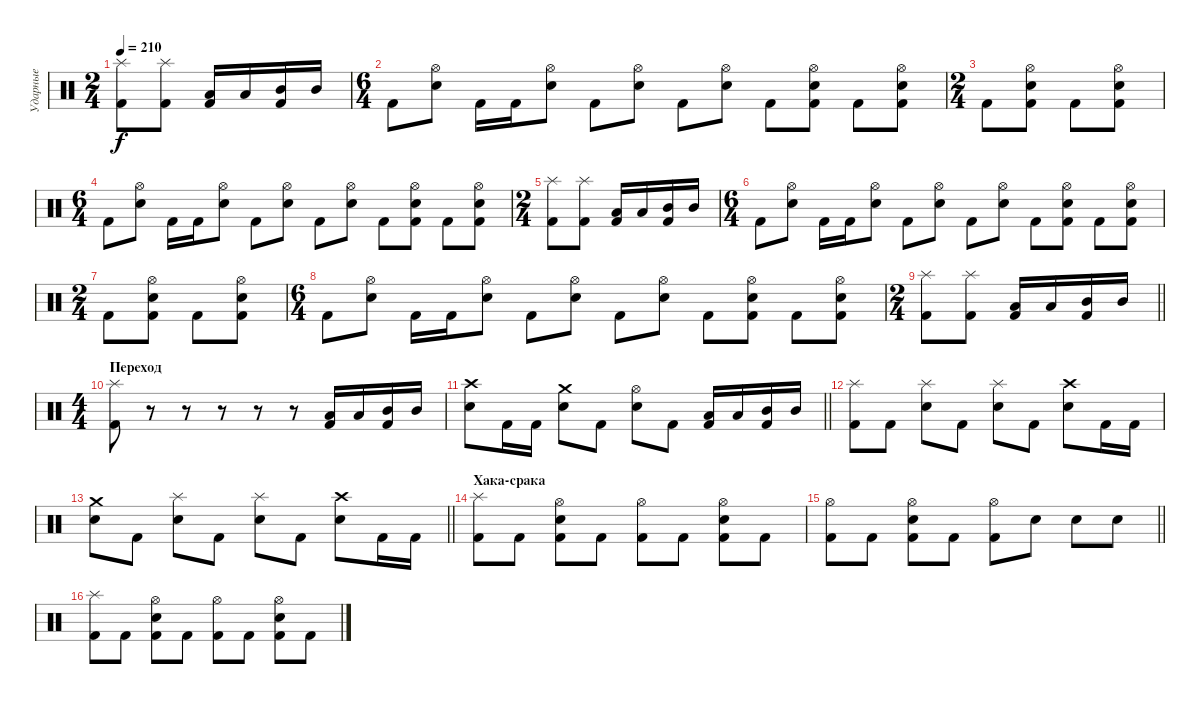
\track ("Ударные" "Ударные") {mute instrument percussion}
\staff {score}
\articulation defaults
\ts (2 4)
\tempo 210
\clef neutral
\ks c
("Kick (hit) 2" "Splash (hit)").8{dy f} ("Kick (hit) 2" "Splash (hit)").8 ("Kick (hit) 2" "Low Tom (hit)").16 "Low Tom (hit)".16 ("Kick (hit) 2" "Mid Tom (hit)").16 "Mid Tom (hit)".16 |
\ts (6 4)
"Kick (hit) 2".8 ("Electric Snare (hit)" "Hi-Hat (open)").8 "Kick (hit) 2".16 "Kick (hit) 2".16 ("Electric Snare (hit)" "Hi-Hat (open)").8 "Kick (hit) 2".8 ("Electric Snare (hit)" "Hi-Hat (open)").8 "Kick (hit) 2".8 ("Electric Snare (hit)" "Hi-Hat (open)").8 "Kick (hit) 2".8 ("Kick (hit) 2" "Electric Snare (hit)" "Hi-Hat (open)").8 "Kick (hit) 2".8 ("Kick (hit) 2" "Electric Snare (hit)" "Hi-Hat (open)").8 |
\ts (2 4)
"Kick (hit) 2".8 ("Kick (hit) 2" "Electric Snare (hit)" "Hi-Hat (open)").8 "Kick (hit) 2".8 ("Electric Snare (hit)" "Hi-Hat (open)" "Kick (hit) 2").8 |
\ts (6 4)
"Kick (hit) 2".8 ("Electric Snare (hit)" "Hi-Hat (open)").8 "Kick (hit) 2".16 "Kick (hit) 2".16 ("Electric Snare (hit)" "Hi-Hat (open)").8 "Kick (hit) 2".8 ("Electric Snare (hit)" "Hi-Hat (open)").8 "Kick (hit) 2".8 ("Electric Snare (hit)" "Hi-Hat (open)").8 "Kick (hit) 2".8 ("Kick (hit) 2" "Electric Snare (hit)" "Hi-Hat (open)").8 "Kick (hit) 2".8 ("Kick (hit) 2" "Electric Snare (hit)" "Hi-Hat (open)").8 |
\ts (2 4)
("Kick (hit) 2" "Splash (hit)").8 ("Kick (hit) 2" "Splash (hit)").8 ("Kick (hit) 2" "Low Tom (hit)").16 "Low Tom (hit)".16 ("Kick (hit) 2" "Mid Tom (hit)").16 "Mid Tom (hit)".16 |
\ts (6 4)
"Kick (hit) 2".8 ("Electric Snare (hit)" "Hi-Hat (open)").8 "Kick (hit) 2".16 "Kick (hit) 2".16 ("Electric Snare (hit)" "Hi-Hat (open)").8 "Kick (hit) 2".8 ("Electric Snare (hit)" "Hi-Hat (open)").8 "Kick (hit) 2".8 ("Electric Snare (hit)" "Hi-Hat (open)").8 "Kick (hit) 2".8 ("Kick (hit) 2" "Electric Snare (hit)" "Hi-Hat (open)").8 "Kick (hit) 2".8 ("Kick (hit) 2" "Electric Snare (hit)" "Hi-Hat (open)").8 |
\ts (2 4)
"Kick (hit) 2".8 ("Kick (hit) 2" "Electric Snare (hit)" "Hi-Hat (open)").8 "Kick (hit) 2".8 ("Electric Snare (hit)" "Hi-Hat (open)" "Kick (hit) 2").8 |
\ts (6 4)
"Kick (hit) 2".8 ("Electric Snare (hit)" "Hi-Hat (open)").8 "Kick (hit) 2".16 "Kick (hit) 2".16 ("Electric Snare (hit)" "Hi-Hat (open)").8 "Kick (hit) 2".8 ("Electric Snare (hit)" "Hi-Hat (open)").8 "Kick (hit) 2".8 ("Electric Snare (hit)" "Hi-Hat (open)").8 "Kick (hit) 2".8 ("Kick (hit) 2" "Electric Snare (hit)" "Hi-Hat (open)").8 "Kick (hit) 2".8 ("Kick (hit) 2" "Electric Snare (hit)" "Hi-Hat (open)").8 |
\ts (2 4)
\barLineRight lightlight
("Kick (hit) 2" "Splash (hit)").8 ("Kick (hit) 2" "Splash (hit)").8 ("Kick (hit) 2" "Low Tom (hit)").16 "Low Tom (hit)".16 ("Kick (hit) 2" "Mid Tom (hit)").16 "Mid Tom (hit)".16 |
\ts (4 4)
\section ("" "Переход")
("Kick (hit) 2" "Splash (hit)").8 r.8 r.8 r.8 r.8 r.8 ("Kick (hit) 2" "Low Tom (hit)").16 "Low Tom (hit)".16 ("Kick (hit) 2" "Mid Tom (hit)").16 "Mid Tom (hit)".16 |
\barLineRight lightlight
("Electric Snare (hit)" "Crash high (hit)").8 "Kick (hit) 2".16 "Kick (hit) 2".16 ("Electric Snare (hit)" "Crash medium (hit)").8 "Kick (hit) 2".8 ("Electric Snare (hit)" "Hi-Hat (open)").8 "Kick (hit) 2".8 ("Kick (hit) 2" "Low Tom (hit)").16 "Low Tom (hit)".16 ("Kick (hit) 2" "Mid Tom (hit)").16 "Mid Tom (hit)".16 |
("Kick (hit) 2" "Splash (hit)").8 "Kick (hit) 2".8 ("Electric Snare (hit)" "Splash (hit)").8 "Kick (hit) 2".8 ("Electric Snare (hit)" "Splash (hit)").8 "Kick (hit) 2".8 ("Electric Snare (hit)" "Crash high (hit)").8 "Kick (hit) 2".16 "Kick (hit) 2".16 |
\barLineRight lightlight
("Electric Snare (hit)" "Crash medium (hit)").8 "Kick (hit) 2".8 ("Electric Snare (hit)" "Splash (hit)").8 "Kick (hit) 2".8 ("Electric Snare (hit)" "Splash (hit)").8 "Kick (hit) 2".8 ("Electric Snare (hit)" "Crash high (hit)").8 "Kick (hit) 2".16 "Kick (hit) 2".16 |
\section ("" "Хака-срака")
("Kick (hit) 2" "Splash (hit)").8 "Kick (hit) 2".8 ("Kick (hit) 2" "Electric Snare (hit)" "Hi-Hat (open)").8 "Kick (hit) 2".8 ("Kick (hit) 2" "Hi-Hat (open)").8 "Kick (hit) 2".8 ("Kick (hit) 2" "Electric Snare (hit)" "Hi-Hat (open)").8 "Kick (hit) 2".8 |
\barLineRight lightlight
("Kick (hit) 2" "Hi-Hat (open)").8 "Kick (hit) 2".8 ("Kick (hit) 2" "Electric Snare (hit)" "Hi-Hat (open)").8 "Kick (hit) 2".8 ("Kick (hit) 2" "Hi-Hat (open)").8 "Electric Snare (hit)".8 "Electric Snare (hit)".8 "Electric Snare (hit)".8 |
("Kick (hit) 2" "Splash (hit)").8 "Kick (hit) 2".8 ("Kick (hit) 2" "Electric Snare (hit)" "Hi-Hat (open)").8 "Kick (hit) 2".8 ("Kick (hit) 2" "Hi-Hat (open)").8 "Kick (hit) 2".8 ("Kick (hit) 2" "Electric Snare (hit)" "Hi-Hat (open)").8 "Kick (hit) 2".8
